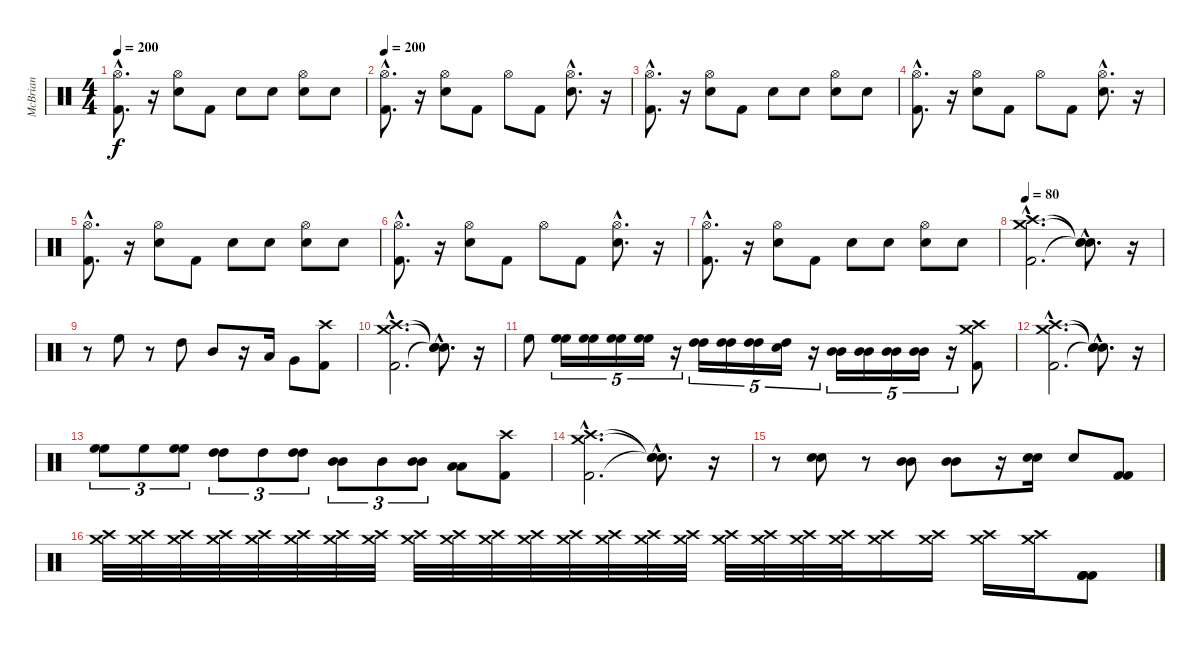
\track ("McBrian" "McBrian") {instrument percussion}
\staff {score}
\articulation defaults
\ts (4 4)
\tempo 200
\clef neutral
\ks c
("Hi-Hat (open)"{hac} "Kick (hit) 2"{hac}).8{d dy f} r.16 ("Snare (hit) 2" "Hi-Hat (open)").8 "Kick (hit) 2".8 "Snare (hit) 2".8 "Snare (hit) 2".8 ("Hi-Hat (open)" "Snare (hit) 2").8 "Snare (hit) 2".8 |
\tempo 200
("Hi-Hat (open)"{hac} "Kick (hit) 2"{hac}).8{d} r.16 ("Snare (hit) 2" "Hi-Hat (open)").8 "Kick (hit) 2".8 "Hi-Hat (open)".8 "Kick (hit) 2".8 ("Hi-Hat (open)"{hac} "Snare (hit) 2"{hac}).8{d} r.16 |
("Hi-Hat (open)"{hac} "Kick (hit) 2"{hac}).8{d} r.16 ("Snare (hit) 2" "Hi-Hat (open)").8 "Kick (hit) 2".8 "Snare (hit) 2".8 "Snare (hit) 2".8 ("Hi-Hat (open)" "Snare (hit) 2").8 "Snare (hit) 2".8 |
("Hi-Hat (open)"{hac} "Kick (hit) 2"{hac}).8{d} r.16 ("Snare (hit) 2" "Hi-Hat (open)").8 "Kick (hit) 2".8 "Hi-Hat (open)".8 "Kick (hit) 2".8 ("Hi-Hat (open)"{hac} "Snare (hit) 2"{hac}).8{d} r.16 |
("Hi-Hat (open)"{hac} "Kick (hit) 2"{hac}).8{d} r.16 ("Snare (hit) 2" "Hi-Hat (open)").8 "Kick (hit) 2".8 "Snare (hit) 2".8 "Snare (hit) 2".8 ("Hi-Hat (open)" "Snare (hit) 2").8 "Snare (hit) 2".8 |
("Hi-Hat (open)"{hac} "Kick (hit) 2"{hac}).8{d} r.16 ("Snare (hit) 2" "Hi-Hat (open)").8 "Kick (hit) 2".8 "Hi-Hat (open)".8 "Kick (hit) 2".8 ("Hi-Hat (open)"{hac} "Snare (hit) 2"{hac}).8{d} r.16 |
("Hi-Hat (open)"{hac} "Kick (hit) 2"{hac}).8{d} r.16 ("Snare (hit) 2" "Hi-Hat (open)").8 "Kick (hit) 2".8 "Snare (hit) 2".8 "Snare (hit) 2".8 ("Hi-Hat (open)" "Snare (hit) 2").8 "Snare (hit) 2".8 |
\tempo 80
("Crash high (hit)"{hac} "Kick (hit) 2"{hac} "Crash medium (hit)"{hac}).2{d} ("Snare (hit)"{hac t} "Snare (hit)"{hac t} "Snare (hit)"{hac t}).8{d} r.16 |
r.8 "High Floor Tom (hit)".8 r.8 "High Tom (hit)".8 "Mid Tom (hit)".8 r.16 "Low Tom (hit)".16 "Very Low Tom (hit)".8 ("Crash high (hit)" "Kick (hit) 2").8 |
("Crash high (hit)"{hac} "Kick (hit) 2"{hac} "Crash medium (hit)"{hac}).2{d} ("Snare (hit)"{hac t} "Snare (hit)"{hac t} "Snare (hit)"{hac t}).8{d} r.16 |
"High Floor Tom (hit)".8 ("High Floor Tom (hit)" "High Floor Tom (hit)").16{tu (5 4)} ("High Floor Tom (hit)" "High Floor Tom (hit)").16{tu (5 4)} ("High Floor Tom (hit)" "High Floor Tom (hit)").16{tu (5 4)} ("High Floor Tom (hit)" "High Floor Tom (hit)").16{tu (5 4)} r.16{tu (5 4)} ("High Tom (hit)" "High Tom (hit)").16{tu (5 4)} ("High Tom (hit)" "High Tom (hit)").16{tu (5 4)} ("High Tom (hit)" "High Tom (hit)").16{tu (5 4)} ("High Tom (hit)" "Snare (hit)").16{tu (5 4)} r.16{tu (5 4)} ("Mid Tom (hit)" "Mid Tom (hit)").16{tu (5 4)} ("Mid Tom (hit)" "Mid Tom (hit)").16{tu (5 4)} ("Mid Tom (hit)" "Mid Tom (hit)").16{tu (5 4)} ("Mid Tom (hit)" "Mid Tom (hit)").16{tu (5 4)} r.16{tu (5 4)} ("Crash medium (hit)" "Crash high (hit)" "Kick (hit) 2").8 |
("Crash high (hit)"{hac} "Kick (hit) 2"{hac} "Crash medium (hit)"{hac}).2{d} ("Snare (hit)"{hac t} "Snare (hit)"{hac t} "Snare (hit)"{hac t}).8{d} r.16 |
("High Floor Tom (hit)" "High Floor Tom (hit)").8{tu (3 2)} "High Floor Tom (hit)".8{tu (3 2)} ("High Floor Tom (hit)" "High Floor Tom (hit)").8{tu (3 2)} ("High Tom (hit)" "High Tom (hit)").8{tu (3 2)} "High Tom (hit)".8{tu (3 2)} ("High Tom (hit)" "High Tom (hit)").8{tu (3 2)} ("Mid Tom (hit)" "Mid Tom (hit)").8{tu (3 2)} "Mid Tom (hit)".8{tu (3 2)} ("Mid Tom (hit)" "Mid Tom (hit)").8{tu (3 2)} ("Low Tom (hit)" "Low Tom (hit)").8 ("Kick (hit) 2" "Crash high (hit)").8 |
("Crash high (hit)"{hac} "Kick (hit) 2"{hac} "Crash medium (hit)"{hac}).2{d} ("Snare (hit)"{hac t} "Snare (hit)"{hac t} "Snare (hit)"{hac t}).8{d} r.16 |
r.8 ("Snare (hit) 2" "Snare (hit) 2").8 r.8 ("Mid Tom (hit)" "Mid Tom (hit)").8 ("Mid Tom (hit)" "Mid Tom (hit)").8 r.16 ("Snare (hit) 2" "Snare (hit) 2").16 "Snare (hit) 2".8 ("Kick (hit) 2" "Kick (hit) 2").8 |
("Crash medium (hit)" "Crash high (hit)").32 ("Crash medium (hit)" "Crash high (hit)").32 ("Crash medium (hit)" "Crash high (hit)").32 ("Crash medium (hit)" "Crash high (hit)").32 ("Crash medium (hit)" "Crash high (hit)").32 ("Crash medium (hit)" "Crash high (hit)").32 ("Crash medium (hit)" "Crash high (hit)").32 ("Crash medium (hit)" "Crash high (hit)").32 ("Crash medium (hit)" "Crash high (hit)").32 ("Crash medium (hit)" "Crash high (hit)").32 ("Crash medium (hit)" "Crash high (hit)").32 ("Crash medium (hit)" "Crash high (hit)").32 ("Crash medium (hit)" "Crash high (hit)").32 ("Crash medium (hit)" "Crash high (hit)").32 ("Crash medium (hit)" "Crash high (hit)").32 ("Crash medium (hit)" "Crash high (hit)").32 ("Crash medium (hit)" "Crash high (hit)").32 ("Crash medium (hit)" "Crash high (hit)").32 ("Crash medium (hit)" "Crash high (hit)").32 ("Crash medium (hit)" "Crash high (hit)").32 ("Crash medium (hit)" "Crash high (hit)").16 ("Crash medium (hit)" "Crash high (hit)").16 ("Crash medium (hit)" "Crash high (hit)").16 ("Crash medium (hit)" "Crash high (hit)").16 ("Kick (hit) 2" "Kick (hit) 2" "Kick (hit) 2" "Kick (hit) 2").8
